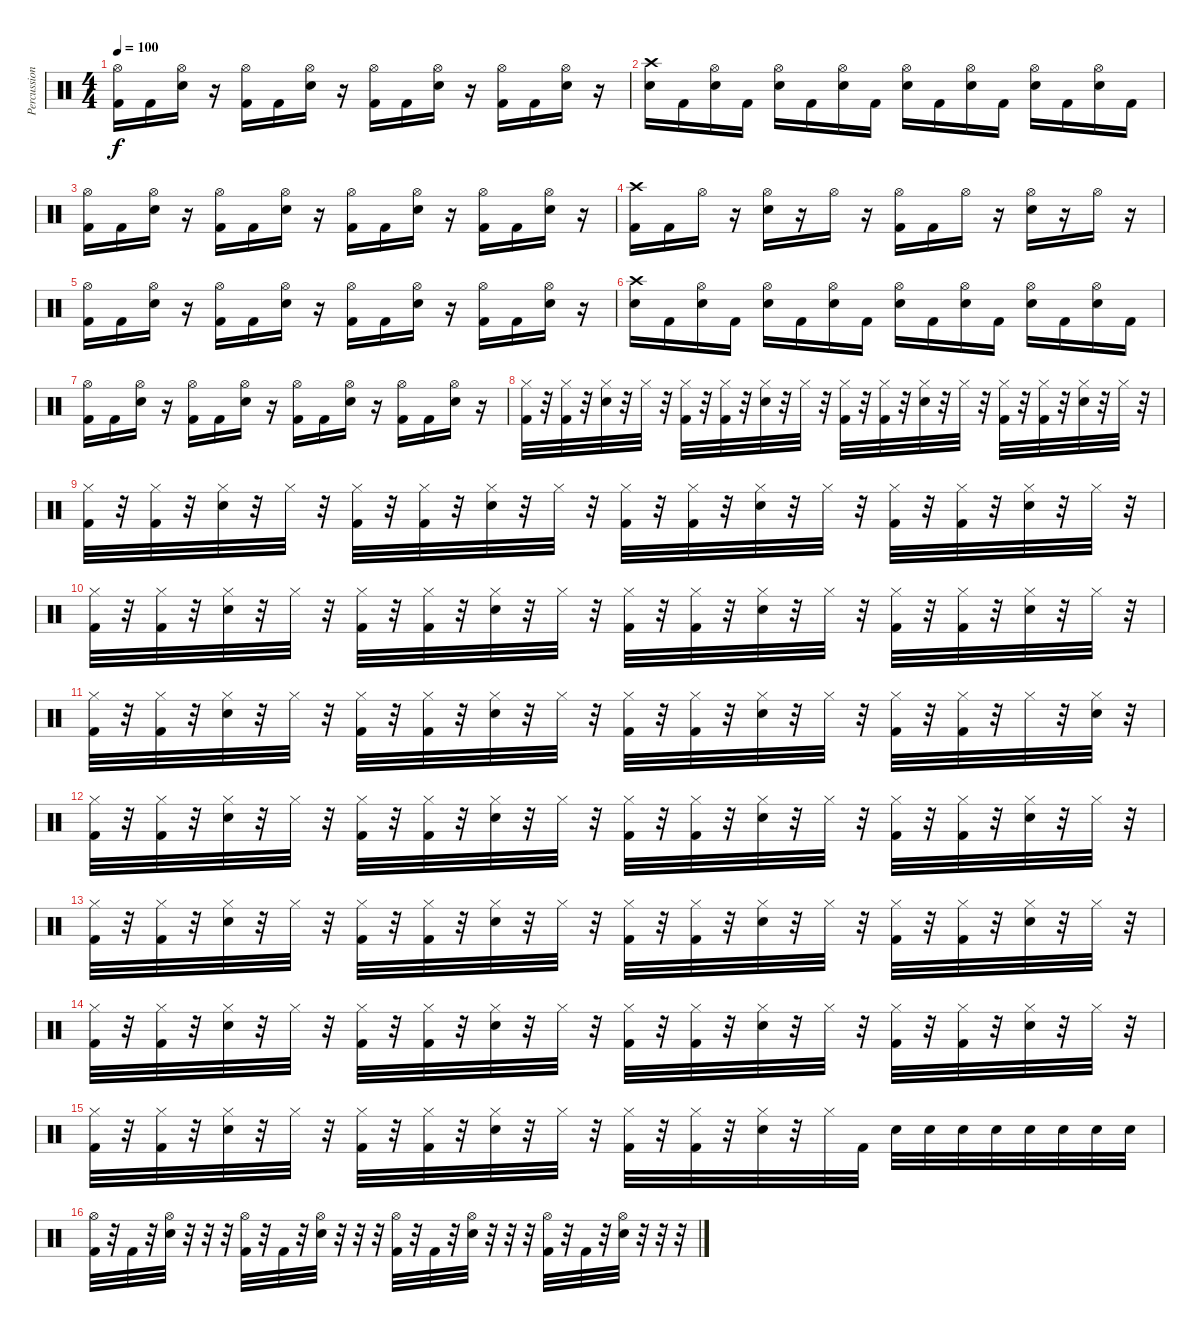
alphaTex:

\track ("Percussion" "Percussion") {instrument percussion}
\staff {score}
\articulation defaults
\ts (4 4)
\tempo 100
\clef neutral
\ks c
("Hi-Hat (open)" "Kick (hit) 2").16{dy f} "Kick (hit) 2".16 ("Hi-Hat (open)" "Snare (hit) 2").16 r.16 ("Hi-Hat (open)" "Kick (hit) 2").16 "Kick (hit) 2".16 ("Hi-Hat (open)" "Snare (hit) 2").16 r.16 ("Hi-Hat (open)" "Kick (hit) 2").16 "Kick (hit) 2".16 ("Hi-Hat (open)" "Snare (hit) 2").16 r.16 ("Hi-Hat (open)" "Kick (hit) 2").16 "Kick (hit) 2".16 ("Hi-Hat (open)" "Snare (hit) 2").16 r.16 |
("Crash high (hit)" "Snare (hit) 2").16 "Kick (hit) 2".16 ("Hi-Hat (open)" "Snare (hit) 2").16 "Kick (hit) 2".16 ("Hi-Hat (open)" "Snare (hit) 2").16 "Kick (hit) 2".16 ("Hi-Hat (open)" "Snare (hit) 2").16 "Kick (hit) 2".16 ("Hi-Hat (open)" "Snare (hit) 2").16 "Kick (hit) 2".16 ("Hi-Hat (open)" "Snare (hit) 2").16 "Kick (hit) 2".16 ("Hi-Hat (open)" "Snare (hit) 2").16 "Kick (hit) 2".16 ("Hi-Hat (open)" "Snare (hit) 2").16 "Kick (hit) 2".16 |
("Hi-Hat (open)" "Kick (hit) 2").16 "Kick (hit) 2".16 ("Hi-Hat (open)" "Snare (hit) 2").16 r.16 ("Hi-Hat (open)" "Kick (hit) 2").16 "Kick (hit) 2".16 ("Hi-Hat (open)" "Snare (hit) 2").16 r.16 ("Hi-Hat (open)" "Kick (hit) 2").16 "Kick (hit) 2".16 ("Hi-Hat (open)" "Snare (hit) 2").16 r.16 ("Hi-Hat (open)" "Kick (hit) 2").16 "Kick (hit) 2".16 ("Hi-Hat (open)" "Snare (hit) 2").16 r.16 |
("Crash high (hit)" "Kick (hit) 2").16 "Kick (hit) 2".16 "Hi-Hat (open)".16 r.16 ("Hi-Hat (open)" "Snare (hit) 2").16 r.16 "Hi-Hat (open)".16 r.16 ("Hi-Hat (open)" "Kick (hit) 2").16 "Kick (hit) 2".16 "Hi-Hat (open)".16 r.16 ("Hi-Hat (open)" "Snare (hit) 2").16 r.16 "Hi-Hat (open)".16 r.16 |
("Hi-Hat (open)" "Kick (hit) 2").16 "Kick (hit) 2".16 ("Hi-Hat (open)" "Snare (hit) 2").16 r.16 ("Hi-Hat (open)" "Kick (hit) 2").16 "Kick (hit) 2".16 ("Hi-Hat (open)" "Snare (hit) 2").16 r.16 ("Hi-Hat (open)" "Kick (hit) 2").16 "Kick (hit) 2".16 ("Hi-Hat (open)" "Snare (hit) 2").16 r.16 ("Hi-Hat (open)" "Kick (hit) 2").16 "Kick (hit) 2".16 ("Hi-Hat (open)" "Snare (hit) 2").16 r.16 |
("Crash high (hit)" "Snare (hit) 2").16 "Kick (hit) 2".16 ("Hi-Hat (open)" "Snare (hit) 2").16 "Kick (hit) 2".16 ("Hi-Hat (open)" "Snare (hit) 2").16 "Kick (hit) 2".16 ("Hi-Hat (open)" "Snare (hit) 2").16 "Kick (hit) 2".16 ("Hi-Hat (open)" "Snare (hit) 2").16 "Kick (hit) 2".16 ("Hi-Hat (open)" "Snare (hit) 2").16 "Kick (hit) 2".16 ("Hi-Hat (open)" "Snare (hit) 2").16 "Kick (hit) 2".16 ("Hi-Hat (open)" "Snare (hit) 2").16 "Kick (hit) 2".16 |
("Hi-Hat (open)" "Kick (hit) 2").16 "Kick (hit) 2".16 ("Hi-Hat (open)" "Snare (hit) 2").16 r.16 ("Hi-Hat (open)" "Kick (hit) 2").16 "Kick (hit) 2".16 ("Hi-Hat (open)" "Snare (hit) 2").16 r.16 ("Hi-Hat (open)" "Kick (hit) 2").16 "Kick (hit) 2".16 ("Hi-Hat (open)" "Snare (hit) 2").16 r.16 ("Hi-Hat (open)" "Kick (hit) 2").16 "Kick (hit) 2".16 ("Hi-Hat (open)" "Snare (hit) 2").16 r.16 |
("Hi-Hat (closed)" "Kick (hit) 2").32 r.32 ("Hi-Hat (closed)" "Kick (hit) 2").32 r.32 ("Hi-Hat (closed)" "Snare (hit) 2").32 r.32 "Hi-Hat (closed)".32 r.32 ("Hi-Hat (closed)" "Kick (hit) 2").32 r.32 ("Hi-Hat (closed)" "Kick (hit) 2").32 r.32 ("Hi-Hat (closed)" "Snare (hit) 2").32 r.32 "Hi-Hat (closed)".32 r.32 ("Hi-Hat (closed)" "Kick (hit) 2").32 r.32 ("Hi-Hat (closed)" "Kick (hit) 2").32 r.32 ("Hi-Hat (closed)" "Snare (hit) 2").32 r.32 "Hi-Hat (closed)".32 r.32 ("Hi-Hat (closed)" "Kick (hit) 2").32 r.32 ("Hi-Hat (closed)" "Kick (hit) 2").32 r.32 ("Hi-Hat (closed)" "Snare (hit) 2").32 r.32 "Hi-Hat (closed)".32 r.32 |
("Hi-Hat (closed)" "Kick (hit) 2").32 r.32 ("Hi-Hat (closed)" "Kick (hit) 2").32 r.32 ("Hi-Hat (closed)" "Snare (hit) 2").32 r.32 "Hi-Hat (closed)".32 r.32 ("Hi-Hat (closed)" "Kick (hit) 2").32 r.32 ("Hi-Hat (closed)" "Kick (hit) 2").32 r.32 ("Hi-Hat (closed)" "Snare (hit) 2").32 r.32 "Hi-Hat (closed)".32 r.32 ("Hi-Hat (closed)" "Kick (hit) 2").32 r.32 ("Hi-Hat (closed)" "Kick (hit) 2").32 r.32 ("Hi-Hat (closed)" "Snare (hit) 2").32 r.32 "Hi-Hat (closed)".32 r.32 ("Hi-Hat (closed)" "Kick (hit) 2").32 r.32 ("Hi-Hat (closed)" "Kick (hit) 2").32 r.32 ("Hi-Hat (closed)" "Snare (hit) 2").32 r.32 "Hi-Hat (closed)".32 r.32 |
("Hi-Hat (closed)" "Kick (hit) 2").32 r.32 ("Hi-Hat (closed)" "Kick (hit) 2").32 r.32 ("Hi-Hat (closed)" "Snare (hit) 2").32 r.32 "Hi-Hat (closed)".32 r.32 ("Hi-Hat (closed)" "Kick (hit) 2").32 r.32 ("Hi-Hat (closed)" "Kick (hit) 2").32 r.32 ("Hi-Hat (closed)" "Snare (hit) 2").32 r.32 "Hi-Hat (closed)".32 r.32 ("Hi-Hat (closed)" "Kick (hit) 2").32 r.32 ("Hi-Hat (closed)" "Kick (hit) 2").32 r.32 ("Hi-Hat (closed)" "Snare (hit) 2").32 r.32 "Hi-Hat (closed)".32 r.32 ("Hi-Hat (closed)" "Kick (hit) 2").32 r.32 ("Hi-Hat (closed)" "Kick (hit) 2").32 r.32 ("Hi-Hat (closed)" "Snare (hit) 2").32 r.32 "Hi-Hat (closed)".32 r.32 |
("Hi-Hat (closed)" "Kick (hit) 2").32 r.32 ("Hi-Hat (closed)" "Kick (hit) 2").32 r.32 ("Hi-Hat (closed)" "Snare (hit) 2").32 r.32 "Hi-Hat (closed)".32 r.32 ("Hi-Hat (closed)" "Kick (hit) 2").32 r.32 ("Hi-Hat (closed)" "Kick (hit) 2").32 r.32 ("Hi-Hat (closed)" "Snare (hit) 2").32 r.32 "Hi-Hat (closed)".32 r.32 ("Hi-Hat (closed)" "Kick (hit) 2").32 r.32 ("Hi-Hat (closed)" "Kick (hit) 2").32 r.32 ("Hi-Hat (closed)" "Snare (hit) 2").32 r.32 "Hi-Hat (closed)".32 r.32 ("Hi-Hat (closed)" "Kick (hit) 2").32 r.32 ("Hi-Hat (closed)" "Kick (hit) 2").32 r.32 "Hi-Hat (closed)".32 r.32 ("Hi-Hat (closed)" "Snare (hit) 2").32 r.32 |
("Hi-Hat (closed)" "Kick (hit) 2").32 r.32 ("Hi-Hat (closed)" "Kick (hit) 2").32 r.32 ("Hi-Hat (closed)" "Snare (hit) 2").32 r.32 "Hi-Hat (closed)".32 r.32 ("Hi-Hat (closed)" "Kick (hit) 2").32 r.32 ("Hi-Hat (closed)" "Kick (hit) 2").32 r.32 ("Hi-Hat (closed)" "Snare (hit) 2").32 r.32 "Hi-Hat (closed)".32 r.32 ("Hi-Hat (closed)" "Kick (hit) 2").32 r.32 ("Hi-Hat (closed)" "Kick (hit) 2").32 r.32 ("Hi-Hat (closed)" "Snare (hit) 2").32 r.32 "Hi-Hat (closed)".32 r.32 ("Hi-Hat (closed)" "Kick (hit) 2").32 r.32 ("Hi-Hat (closed)" "Kick (hit) 2").32 r.32 ("Hi-Hat (closed)" "Snare (hit) 2").32 r.32 "Hi-Hat (closed)".32 r.32 |
("Hi-Hat (closed)" "Kick (hit) 2").32 r.32 ("Hi-Hat (closed)" "Kick (hit) 2").32 r.32 ("Hi-Hat (closed)" "Snare (hit) 2").32 r.32 "Hi-Hat (closed)".32 r.32 ("Hi-Hat (closed)" "Kick (hit) 2").32 r.32 ("Hi-Hat (closed)" "Kick (hit) 2").32 r.32 ("Hi-Hat (closed)" "Snare (hit) 2").32 r.32 "Hi-Hat (closed)".32 r.32 ("Hi-Hat (closed)" "Kick (hit) 2").32 r.32 ("Hi-Hat (closed)" "Kick (hit) 2").32 r.32 ("Hi-Hat (closed)" "Snare (hit) 2").32 r.32 "Hi-Hat (closed)".32 r.32 ("Hi-Hat (closed)" "Kick (hit) 2").32 r.32 ("Hi-Hat (closed)" "Kick (hit) 2").32 r.32 ("Hi-Hat (closed)" "Snare (hit) 2").32 r.32 "Hi-Hat (closed)".32 r.32 |
("Hi-Hat (closed)" "Kick (hit) 2").32 r.32 ("Hi-Hat (closed)" "Kick (hit) 2").32 r.32 ("Hi-Hat (closed)" "Snare (hit) 2").32 r.32 "Hi-Hat (closed)".32 r.32 ("Hi-Hat (closed)" "Kick (hit) 2").32 r.32 ("Hi-Hat (closed)" "Kick (hit) 2").32 r.32 ("Hi-Hat (closed)" "Snare (hit) 2").32 r.32 "Hi-Hat (closed)".32 r.32 ("Hi-Hat (closed)" "Kick (hit) 2").32 r.32 ("Hi-Hat (closed)" "Kick (hit) 2").32 r.32 ("Hi-Hat (closed)" "Snare (hit) 2").32 r.32 "Hi-Hat (closed)".32 r.32 ("Hi-Hat (closed)" "Kick (hit) 2").32 r.32 ("Hi-Hat (closed)" "Kick (hit) 2").32 r.32 ("Hi-Hat (closed)" "Snare (hit) 2").32 r.32 "Hi-Hat (closed)".32 r.32 |
("Hi-Hat (closed)" "Kick (hit) 2").32 r.32 ("Hi-Hat (closed)" "Kick (hit) 2").32 r.32 ("Hi-Hat (closed)" "Snare (hit) 2").32 r.32 "Hi-Hat (closed)".32 r.32 ("Hi-Hat (closed)" "Kick (hit) 2").32 r.32 ("Hi-Hat (closed)" "Kick (hit) 2").32 r.32 ("Hi-Hat (closed)" "Snare (hit) 2").32 r.32 "Hi-Hat (closed)".32 r.32 ("Hi-Hat (closed)" "Kick (hit) 2").32 r.32 ("Hi-Hat (closed)" "Kick (hit) 2").32 r.32 ("Hi-Hat (closed)" "Snare (hit) 2").32 r.32 "Hi-Hat (closed)".32 "Kick (hit) 2".32 "Snare (hit) 2".32 "Snare (hit) 2".32 "Snare (hit) 2".32 "Snare (hit) 2".32 "Snare (hit) 2".32 "Snare (hit) 2".32 "Snare (hit) 2".32 "Snare (hit) 2".32 |
("Hi-Hat (open)" "Kick (hit) 2").32 r.32 "Kick (hit) 2".32 r.32 ("Hi-Hat (open)" "Snare (hit) 2").32 r.32 r.32 r.32 ("Hi-Hat (open)" "Kick (hit) 2").32 r.32 "Kick (hit) 2".32 r.32 ("Hi-Hat (open)" "Snare (hit) 2").32 r.32 r.32 r.32 ("Hi-Hat (open)" "Kick (hit) 2").32 r.32 "Kick (hit) 2".32 r.32 ("Hi-Hat (open)" "Snare (hit) 2").32 r.32 r.32 r.32 ("Hi-Hat (open)" "Kick (hit) 2").32 r.32 "Kick (hit) 2".32 r.32 ("Hi-Hat (open)" "Snare (hit) 2").32 r.32 r.32 r.32
